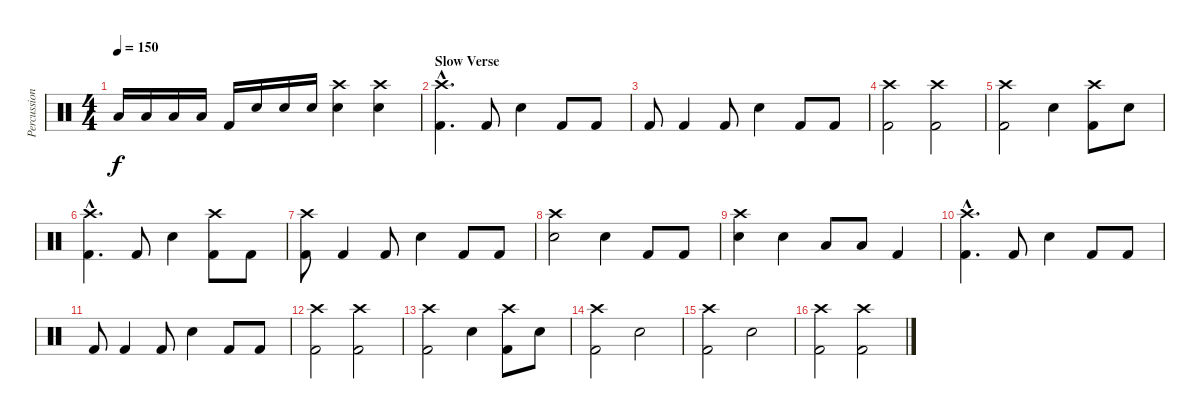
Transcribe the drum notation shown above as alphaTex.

\track ("Percussion" "Percussion") {instrument percussion}
\staff {score}
\articulation defaults
\ts (4 4)
\tempo 150
\clef neutral
\ks c "Low Tom (hit)".16{dy f} "Low Tom (hit)".16 "Low Tom (hit)".16 "Low Tom (hit)".16 "Kick (hit) 2".16 "Snare (hit) 2".16 "Snare (hit) 2".16 "Snare (hit) 2".16
("Crash high (hit)" "Snare (hit) 2").4 ("Crash high (hit)" "Snare (hit) 2").4 |
\section ("" "Slow Verse")
("Crash high (hit)"{hac} "Kick (hit) 2"{hac}).4{d} "Kick (hit) 2".8 "Snare (hit) 2".4 "Kick (hit) 2".8 "Kick (hit) 2".8 |
"Kick (hit) 2".8 "Kick (hit) 2".4 "Kick (hit) 2".8 "Snare (hit) 2".4 "Kick (hit) 2".8 "Kick (hit) 2".8 |
("Crash high (hit)" "Kick (hit) 2").2 ("Crash high (hit)" "Kick (hit) 2").2 |
("Crash high (hit)" "Kick (hit) 2").2 "Snare (hit) 2".4 ("Crash high (hit)" "Kick (hit) 2").8 "Snare (hit) 2".8 |
("Crash high (hit)"{hac} "Kick (hit) 2"{hac}).4{d} "Kick (hit) 2".8 "Snare (hit) 2".4 ("Crash high (hit)" "Kick (hit) 2").8 "Kick (hit) 2".8 |
("Crash high (hit)" "Kick (hit) 2").8 "Kick (hit) 2".4 "Kick (hit) 2".8 "Snare (hit) 2".4 "Kick (hit) 2".8 "Kick (hit) 2".8 |
("Crash high (hit)" "Snare (hit) 2").2 "Snare (hit) 2".4 "Kick (hit) 2".8 "Kick (hit) 2".8 |
("Crash high (hit)" "Snare (hit) 2").4 "Snare (hit) 2".4 "Low Tom (hit)".8 "Low Tom (hit)".8 "Kick (hit) 2".4 |
("Crash high (hit)"{hac} "Kick (hit) 2"{hac}).4{d} "Kick (hit) 2".8 "Snare (hit) 2".4 "Kick (hit) 2".8 "Kick (hit) 2".8 |
"Kick (hit) 2".8 "Kick (hit) 2".4 "Kick (hit) 2".8 "Snare (hit) 2".4 "Kick (hit) 2".8 "Kick (hit) 2".8 |
("Crash high (hit)" "Kick (hit) 2").2 ("Crash high (hit)" "Kick (hit) 2").2 |
("Crash high (hit)" "Kick (hit) 2").2 "Snare (hit) 2".4 ("Crash high (hit)" "Kick (hit) 2").8 "Snare (hit) 2".8 |
("Crash high (hit)" "Kick (hit) 2").2 "Snare (hit) 2".2 |
("Crash high (hit)" "Kick (hit) 2").2 "Snare (hit) 2".2 |
("Crash high (hit)" "Kick (hit) 2").2 ("Crash high (hit)" "Kick (hit) 2").2
